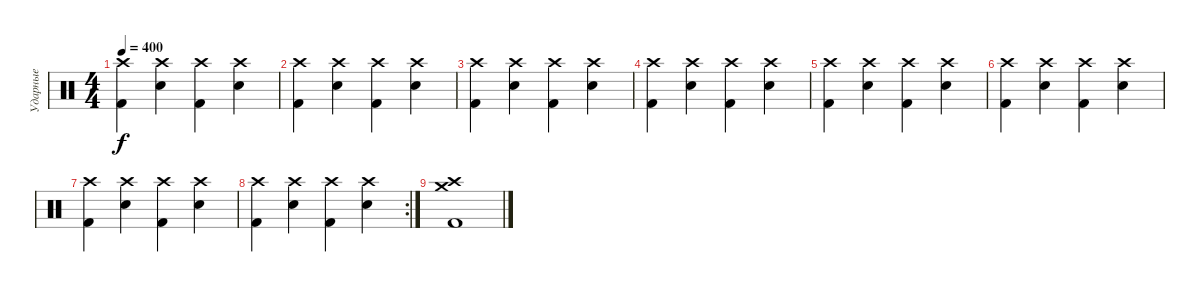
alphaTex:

\track ("Ударные" "Ударные") {instrument percussion}
\staff {score}
\articulation defaults
\ts (4 4)
\tempo 400
\clef neutral
\ks c
("Kick (hit) 2" "Crash high (hit)").4{dy f} ("Electric Snare (hit)" "Crash high (hit)").4 ("Kick (hit) 2" "Crash high (hit)").4 ("Electric Snare (hit)" "Crash high (hit)").4 |
("Kick (hit) 2" "Crash high (hit)").4 ("Electric Snare (hit)" "Crash high (hit)").4 ("Kick (hit) 2" "Crash high (hit)").4 ("Electric Snare (hit)" "Crash high (hit)").4 |
("Kick (hit) 2" "Crash high (hit)").4 ("Electric Snare (hit)" "Crash high (hit)").4 ("Kick (hit) 2" "Crash high (hit)").4 ("Electric Snare (hit)" "Crash high (hit)").4 |
("Kick (hit) 2" "Crash high (hit)").4 ("Electric Snare (hit)" "Crash high (hit)").4 ("Kick (hit) 2" "Crash high (hit)").4 ("Electric Snare (hit)" "Crash high (hit)").4 |
("Kick (hit) 2" "Crash high (hit)").4 ("Electric Snare (hit)" "Crash high (hit)").4 ("Kick (hit) 2" "Crash high (hit)").4 ("Electric Snare (hit)" "Crash high (hit)").4 |
("Kick (hit) 2" "Crash high (hit)").4 ("Electric Snare (hit)" "Crash high (hit)").4 ("Kick (hit) 2" "Crash high (hit)").4 ("Electric Snare (hit)" "Crash high (hit)").4 |
("Kick (hit) 2" "Crash high (hit)").4 ("Electric Snare (hit)" "Crash high (hit)").4 ("Kick (hit) 2" "Crash high (hit)").4 ("Electric Snare (hit)" "Crash high (hit)").4 |
\rc 2
("Kick (hit) 2" "Crash high (hit)").4 ("Electric Snare (hit)" "Crash high (hit)").4 ("Kick (hit) 2" "Crash high (hit)").4 ("Electric Snare (hit)" "Crash high (hit)").4 |
("Kick (hit) 2" "Crash high (hit)" "Crash medium (hit)").1
